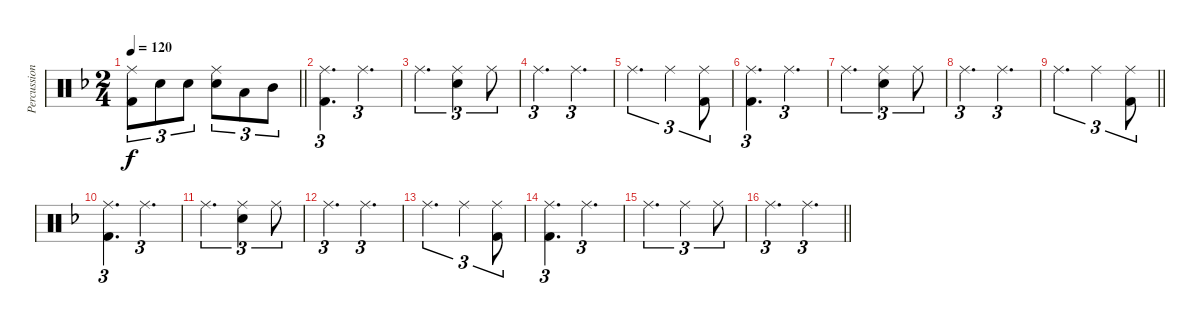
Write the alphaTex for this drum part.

\track ("Percussion" "Percussion") {instrument percussion}
\staff {score}
\articulation defaults
\ts (2 4)
\tempo 120
\clef neutral
\barLineRight lightlight
\ks dminor
("Ride (middle)" "Kick (hit) 2").8{tu (3 2) dy f} "Snare (hit) 2".8{tu (3 2)} "Snare (hit) 2".8{tu (3 2)} ("Ride (middle)" "Snare (hit) 2").8{tu (3 2)} "Low Tom (hit)".8{tu (3 2)} "Mid Tom (hit)".8{tu (3 2)} |
("Ride (middle)" "Kick (hit) 2").4{d tu (3 2)} "Ride (middle)".4{d tu (3 2)} |
"Ride (middle)".4{d tu (3 2)} ("Ride (middle)" "Snare (hit) 2").4{tu (3 2)} "Ride (middle)".8{tu (3 2)} |
"Ride (middle)".4{d tu (3 2)} "Ride (middle)".4{d tu (3 2)} |
"Ride (middle)".4{d tu (3 2)} "Ride (middle)".4{tu (3 2)} ("Ride (middle)" "Kick (hit) 2").8{tu (3 2)} |
("Ride (middle)" "Kick (hit) 2").4{d tu (3 2)} "Ride (middle)".4{d tu (3 2)} |
"Ride (middle)".4{d tu (3 2)} ("Ride (middle)" "Snare (hit) 2").4{tu (3 2)} "Ride (middle)".8{tu (3 2)} |
"Ride (middle)".4{d tu (3 2)} "Ride (middle)".4{d tu (3 2)} |
\barLineRight lightlight "Ride (middle)".4{d tu (3 2)} "Ride (middle)".4{tu (3 2)}
("Ride (middle)" "Kick (hit) 2").8{tu (3 2)} |
("Ride (middle)" "Kick (hit) 2").4{d tu (3 2)} "Ride (middle)".4{d tu (3 2)} |
"Ride (middle)".4{d tu (3 2)} ("Ride (middle)" "Snare (hit) 2").4{tu (3 2)} "Ride (middle)".8{tu (3 2)} |
"Ride (middle)".4{d tu (3 2)} "Ride (middle)".4{d tu (3 2)} |
"Ride (middle)".4{d tu (3 2)} "Ride (middle)".4{tu (3 2)} ("Ride (middle)" "Kick (hit) 2").8{tu (3 2)} |
("Ride (middle)" "Kick (hit) 2").4{d tu (3 2)} "Ride (middle)".4{d tu (3 2)} |
"Ride (middle)".4{d tu (3 2)} "Ride (middle)".4{tu (3 2)} "Ride (middle)".8{tu (3 2)} |
\barLineRight lightlight "Ride (middle)".4{d tu (3 2)} "Ride (middle)".4{d tu (3 2)}
